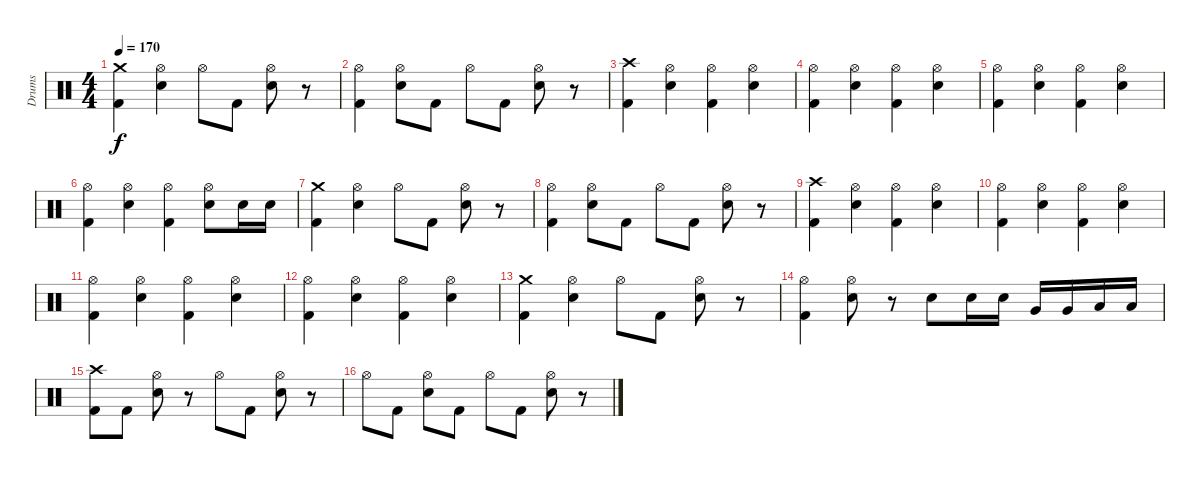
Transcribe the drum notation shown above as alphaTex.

\track ("Drums" "Drums") {instrument percussion}
\staff {score}
\articulation defaults
\ts (4 4)
\tempo 170
\clef neutral
\ks c
("Crash medium (hit)" "Kick (hit) 2").4{dy f} ("Hi-Hat (open)" "Snare (hit) 2").4 "Hi-Hat (open)".8 "Kick (hit) 2".8 ("Hi-Hat (open)" "Snare (hit) 2").8 r.8 |
("Hi-Hat (open)" "Kick (hit) 2").4 ("Hi-Hat (open)" "Snare (hit) 2").8 "Kick (hit) 2".8 "Hi-Hat (open)".8 "Kick (hit) 2".8 ("Hi-Hat (open)" "Snare (hit) 2").8 r.8 |
("Crash high (hit)" "Kick (hit) 2").4 ("Hi-Hat (open)" "Snare (hit) 2").4 ("Hi-Hat (open)" "Kick (hit) 2").4 ("Hi-Hat (open)" "Snare (hit) 2").4 |
("Hi-Hat (open)" "Kick (hit) 2").4 ("Hi-Hat (open)" "Snare (hit) 2").4 ("Hi-Hat (open)" "Kick (hit) 2").4 ("Hi-Hat (open)" "Snare (hit) 2").4 |
("Hi-Hat (open)" "Kick (hit) 2").4 ("Hi-Hat (open)" "Snare (hit) 2").4 ("Hi-Hat (open)" "Kick (hit) 2").4 ("Hi-Hat (open)" "Snare (hit) 2").4 |
("Hi-Hat (open)" "Kick (hit) 2").4 ("Hi-Hat (open)" "Snare (hit) 2").4 ("Hi-Hat (open)" "Kick (hit) 2").4 ("Hi-Hat (open)" "Snare (hit) 2").8 "Snare (hit) 2".16 "Snare (hit) 2".16 |
("Crash medium (hit)" "Kick (hit) 2").4 ("Hi-Hat (open)" "Snare (hit) 2").4 "Hi-Hat (open)".8 "Kick (hit) 2".8 ("Hi-Hat (open)" "Snare (hit) 2").8 r.8 |
("Hi-Hat (open)" "Kick (hit) 2").4 ("Hi-Hat (open)" "Snare (hit) 2").8 "Kick (hit) 2".8 "Hi-Hat (open)".8 "Kick (hit) 2".8 ("Hi-Hat (open)" "Snare (hit) 2").8 r.8 |
("Crash high (hit)" "Kick (hit) 2").4 ("Hi-Hat (open)" "Snare (hit) 2").4 ("Hi-Hat (open)" "Kick (hit) 2").4 ("Hi-Hat (open)" "Snare (hit) 2").4 |
("Hi-Hat (open)" "Kick (hit) 2").4 ("Hi-Hat (open)" "Snare (hit) 2").4 ("Hi-Hat (open)" "Kick (hit) 2").4 ("Hi-Hat (open)" "Snare (hit) 2").4 |
("Hi-Hat (open)" "Kick (hit) 2").4 ("Hi-Hat (open)" "Snare (hit) 2").4 ("Hi-Hat (open)" "Kick (hit) 2").4 ("Hi-Hat (open)" "Snare (hit) 2").4 |
("Hi-Hat (open)" "Kick (hit) 2").4 ("Hi-Hat (open)" "Snare (hit) 2").4 ("Hi-Hat (open)" "Kick (hit) 2").4 ("Hi-Hat (open)" "Snare (hit) 2").4 |
("Crash medium (hit)" "Kick (hit) 2").4 ("Hi-Hat (open)" "Snare (hit) 2").4 "Hi-Hat (open)".8 "Kick (hit) 2".8 ("Hi-Hat (open)" "Snare (hit) 2").8 r.8 |
("Hi-Hat (open)" "Kick (hit) 2").4 ("Hi-Hat (open)" "Snare (hit) 2").8 r.8 "Snare (hit) 2".8 "Snare (hit) 2".16 "Snare (hit) 2".16 "Very Low Tom (hit)".16 "Very Low Tom (hit)".16 "Low Floor Tom (hit)".16 "Low Floor Tom (hit)".16 |
("Crash high (hit)" "Kick (hit) 2").8 "Kick (hit) 2".8 ("Hi-Hat (open)" "Snare (hit) 2").8 r.8 "Hi-Hat (open)".8 "Kick (hit) 2".8 ("Hi-Hat (open)" "Snare (hit) 2").8 r.8 |
"Hi-Hat (open)".8 "Kick (hit) 2".8 ("Hi-Hat (open)" "Snare (hit) 2").8 "Kick (hit) 2".8 "Hi-Hat (open)".8 "Kick (hit) 2".8 ("Hi-Hat (open)" "Snare (hit) 2").8 r.8
